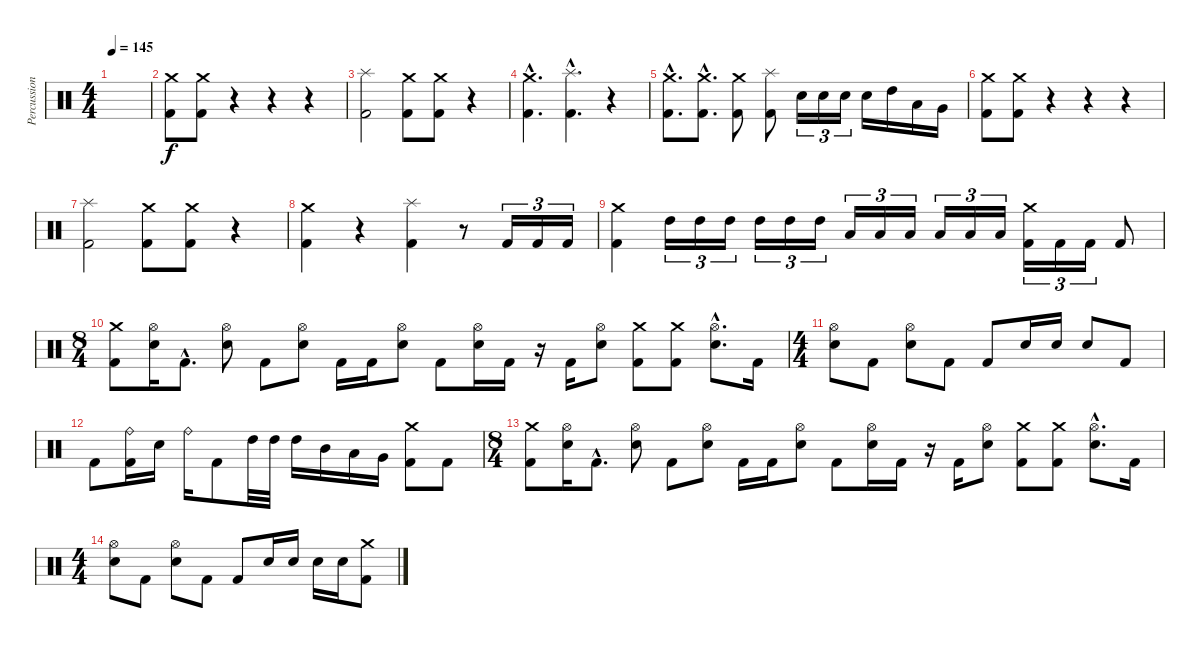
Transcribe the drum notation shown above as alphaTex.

\track ("Percussions" "Percussion") {instrument percussion}
\staff {score}
\articulation defaults
\ts (4 4)
\tempo 145
\clef neutral
\ks c
|
("Crash medium (hit)" "Kick (hit) 2").8 ("Crash medium (hit)" "Kick (hit) 2").8 r.4 r.4 r.4 |
("Splash (hit)" "Kick (hit) 2").2 ("Crash medium (hit)" "Kick (hit) 2").8 ("Crash medium (hit)" "Kick (hit) 2").8 r.4 |
("Crash medium (hit)"{hac} "Kick (hit) 2"{hac}).4{d} ("Splash (hit)"{hac} "Kick (hit) 2"{hac}).4{d} r.4 |
("Crash medium (hit)"{hac} "Kick (hit) 2"{hac}).8{d} ("Crash medium (hit)"{hac} "Kick (hit) 2"{hac}).8{d} ("Crash medium (hit)" "Kick (hit) 2").8 ("Splash (hit)" "Kick (hit) 2").8 "Electric Snare (hit)".16{tu (3 2)} "Electric Snare (hit)".16{tu (3 2)} "Electric Snare (hit)".16{tu (3 2)} "Electric Snare (hit)".16 "High Tom (hit)".16 "Low Tom (hit)".16 "Very Low Tom (hit)".16 |
("Crash medium (hit)" "Kick (hit) 2").8 ("Crash medium (hit)" "Kick (hit) 2").8 r.4 r.4 r.4 |
("Splash (hit)" "Kick (hit) 2").2 ("Crash medium (hit)" "Kick (hit) 2").8 ("Crash medium (hit)" "Kick (hit) 2").8 r.4 |
("Crash medium (hit)" "Kick (hit) 2").4 r.4 ("Splash (hit)" "Kick (hit) 2").4 r.8 "Kick (hit) 2".16{tu (3 2)} "Kick (hit) 2".16{tu (3 2)} "Kick (hit) 2".16{tu (3 2)} |
("Crash medium (hit)" "Kick (hit) 2").4 "High Tom (hit)".16{tu (3 2)} "High Tom (hit)".16{tu (3 2)} "High Tom (hit)".16{tu (3 2)} "High Tom (hit)".16{tu (3 2)} "High Tom (hit)".16{tu (3 2)} "High Tom (hit)".16{tu (3 2)} "Low Tom (hit)".16{tu (3 2)} "Low Tom (hit)".16{tu (3 2)} "Low Tom (hit)".16{tu (3 2)} "Low Tom (hit)".16{tu (3 2)} "Low Tom (hit)".16{tu (3 2)} "Low Tom (hit)".16{tu (3 2)} ("Crash medium (hit)" "Kick (hit) 2").16{tu (3 2)} "Kick (hit) 2".16{tu (3 2)} "Kick (hit) 2".16{tu (3 2)} "Kick (hit) 2".8 |
\ts (8 4)
("Crash medium (hit)" "Kick (hit) 2").8 ("Hi-Hat (open)" "Electric Snare (hit)").16 "Kick (hit) 2"{hac}.8{d} ("Hi-Hat (open)" "Electric Snare (hit)").8 "Kick (hit) 2".8 ("Hi-Hat (open)" "Electric Snare (hit)").8 "Kick (hit) 2".16 "Kick (hit) 2".16 ("Hi-Hat (open)" "Electric Snare (hit)").8 "Kick (hit) 2".8 ("Hi-Hat (open)" "Electric Snare (hit)").16 "Kick (hit) 2".16 r.16 "Kick (hit) 2".16 ("Hi-Hat (open)" "Electric Snare (hit)").8 ("Crash medium (hit)" "Kick (hit) 2").8 ("Crash medium (hit)" "Kick (hit) 2").8 ("Hi-Hat (open)"{hac} "Electric Snare (hit)"{hac}).8{d} "Kick (hit) 2".16 |
\ts (4 4)
("Hi-Hat (open)" "Electric Snare (hit)").8 "Kick (hit) 2".8 ("Hi-Hat (open)" "Electric Snare (hit)").8 "Kick (hit) 2".8 "Kick (hit) 2".8 "Electric Snare (hit)".16 "Electric Snare (hit)".16 "Electric Snare (hit)".8 "Kick (hit) 2".8 |
"Kick (hit) 2".8 ("Ride (bell)" "Kick (hit) 2").16 "Electric Snare (hit)".16 "Ride (bell)".16 "Kick (hit) 2".8 "High Tom (hit)".32 "High Tom (hit)".32 "High Tom (hit)".16 "Mid Tom (hit)".16 "Low Tom (hit)".16 "Very Low Tom (hit)".16 ("Crash medium (hit)" "Kick (hit) 2").8 "Kick (hit) 2".8 |
\ts (8 4)
("Crash medium (hit)" "Kick (hit) 2").8 ("Hi-Hat (open)" "Electric Snare (hit)").16 "Kick (hit) 2"{hac}.8{d} ("Hi-Hat (open)" "Electric Snare (hit)").8 "Kick (hit) 2".8 ("Hi-Hat (open)" "Electric Snare (hit)").8 "Kick (hit) 2".16 "Kick (hit) 2".16 ("Hi-Hat (open)" "Electric Snare (hit)").8 "Kick (hit) 2".8 ("Hi-Hat (open)" "Electric Snare (hit)").16 "Kick (hit) 2".16 r.16 "Kick (hit) 2".16 ("Hi-Hat (open)" "Electric Snare (hit)").8 ("Crash medium (hit)" "Kick (hit) 2").8 ("Crash medium (hit)" "Kick (hit) 2").8 ("Hi-Hat (open)"{hac} "Electric Snare (hit)"{hac}).8{d} "Kick (hit) 2".16 |
\ts (4 4)
("Hi-Hat (open)" "Electric Snare (hit)").8 "Kick (hit) 2".8 ("Hi-Hat (open)" "Electric Snare (hit)").8 "Kick (hit) 2".8 "Kick (hit) 2".8 "Electric Snare (hit)".16 "Electric Snare (hit)".16 "Electric Snare (hit)".16 "Electric Snare (hit)".16 ("Crash medium (hit)" "Kick (hit) 2").8
